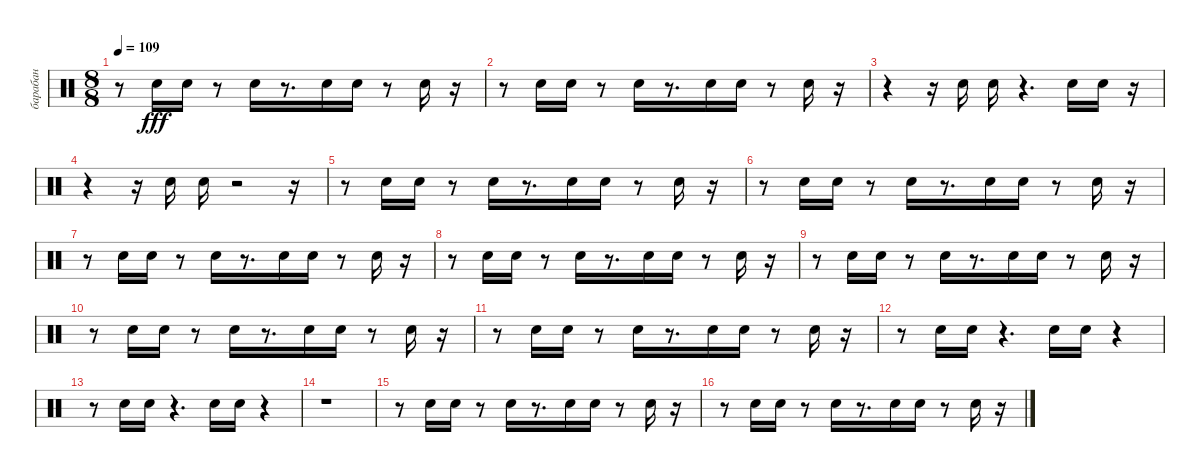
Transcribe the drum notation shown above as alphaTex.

\track ("барабан" "барабан") {instrument percussion}
\staff {score}
\articulation defaults
\ts (8 8)
\tempo 109
\clef neutral
\ks c
r.8{dy fff} "Electric Snare (hit)".16 "Electric Snare (hit)".16 r.8 "Electric Snare (hit)".16 r.8{d} "Electric Snare (hit)".16 "Electric Snare (hit)".16 r.8 "Electric Snare (hit)".16 r.16 |
r.8 "Electric Snare (hit)".16 "Electric Snare (hit)".16 r.8 "Electric Snare (hit)".16 r.8{d} "Electric Snare (hit)".16 "Electric Snare (hit)".16 r.8 "Electric Snare (hit)".16 r.16 |
r.4 r.16 "Electric Snare (hit)".16 "Electric Snare (hit)".16 r.4{d} "Electric Snare (hit)".16 "Electric Snare (hit)".16 r.16 |
r.4 r.16 "Electric Snare (hit)".16 "Electric Snare (hit)".16 r.2 r.16 |
r.8 "Electric Snare (hit)".16 "Electric Snare (hit)".16 r.8 "Electric Snare (hit)".16 r.8{d} "Electric Snare (hit)".16 "Electric Snare (hit)".16 r.8 "Electric Snare (hit)".16 r.16 |
r.8 "Electric Snare (hit)".16 "Electric Snare (hit)".16 r.8 "Electric Snare (hit)".16 r.8{d} "Electric Snare (hit)".16 "Electric Snare (hit)".16 r.8 "Electric Snare (hit)".16 r.16 |
r.8 "Electric Snare (hit)".16 "Electric Snare (hit)".16 r.8 "Electric Snare (hit)".16 r.8{d} "Electric Snare (hit)".16 "Electric Snare (hit)".16 r.8 "Electric Snare (hit)".16 r.16 |
r.8 "Electric Snare (hit)".16 "Electric Snare (hit)".16 r.8 "Electric Snare (hit)".16 r.8{d} "Electric Snare (hit)".16 "Electric Snare (hit)".16 r.8 "Electric Snare (hit)".16 r.16 |
r.8 "Electric Snare (hit)".16 "Electric Snare (hit)".16 r.8 "Electric Snare (hit)".16 r.8{d} "Electric Snare (hit)".16 "Electric Snare (hit)".16 r.8 "Electric Snare (hit)".16 r.16 |
r.8 "Electric Snare (hit)".16 "Electric Snare (hit)".16 r.8 "Electric Snare (hit)".16 r.8{d} "Electric Snare (hit)".16 "Electric Snare (hit)".16 r.8 "Electric Snare (hit)".16 r.16 |
r.8 "Electric Snare (hit)".16 "Electric Snare (hit)".16 r.8 "Electric Snare (hit)".16 r.8{d} "Electric Snare (hit)".16 "Electric Snare (hit)".16 r.8 "Electric Snare (hit)".16 r.16 |
r.8 "Electric Snare (hit)".16 "Electric Snare (hit)".16 r.4{d} "Electric Snare (hit)".16 "Electric Snare (hit)".16 r.4 |
r.8 "Electric Snare (hit)".16 "Electric Snare (hit)".16 r.4{d} "Electric Snare (hit)".16 "Electric Snare (hit)".16 r.4 |
r.1 |
r.8 "Electric Snare (hit)".16 "Electric Snare (hit)".16 r.8 "Electric Snare (hit)".16 r.8{d} "Electric Snare (hit)".16 "Electric Snare (hit)".16 r.8 "Electric Snare (hit)".16 r.16 |
r.8 "Electric Snare (hit)".16 "Electric Snare (hit)".16 r.8 "Electric Snare (hit)".16 r.8{d} "Electric Snare (hit)".16 "Electric Snare (hit)".16 r.8 "Electric Snare (hit)".16 r.16
